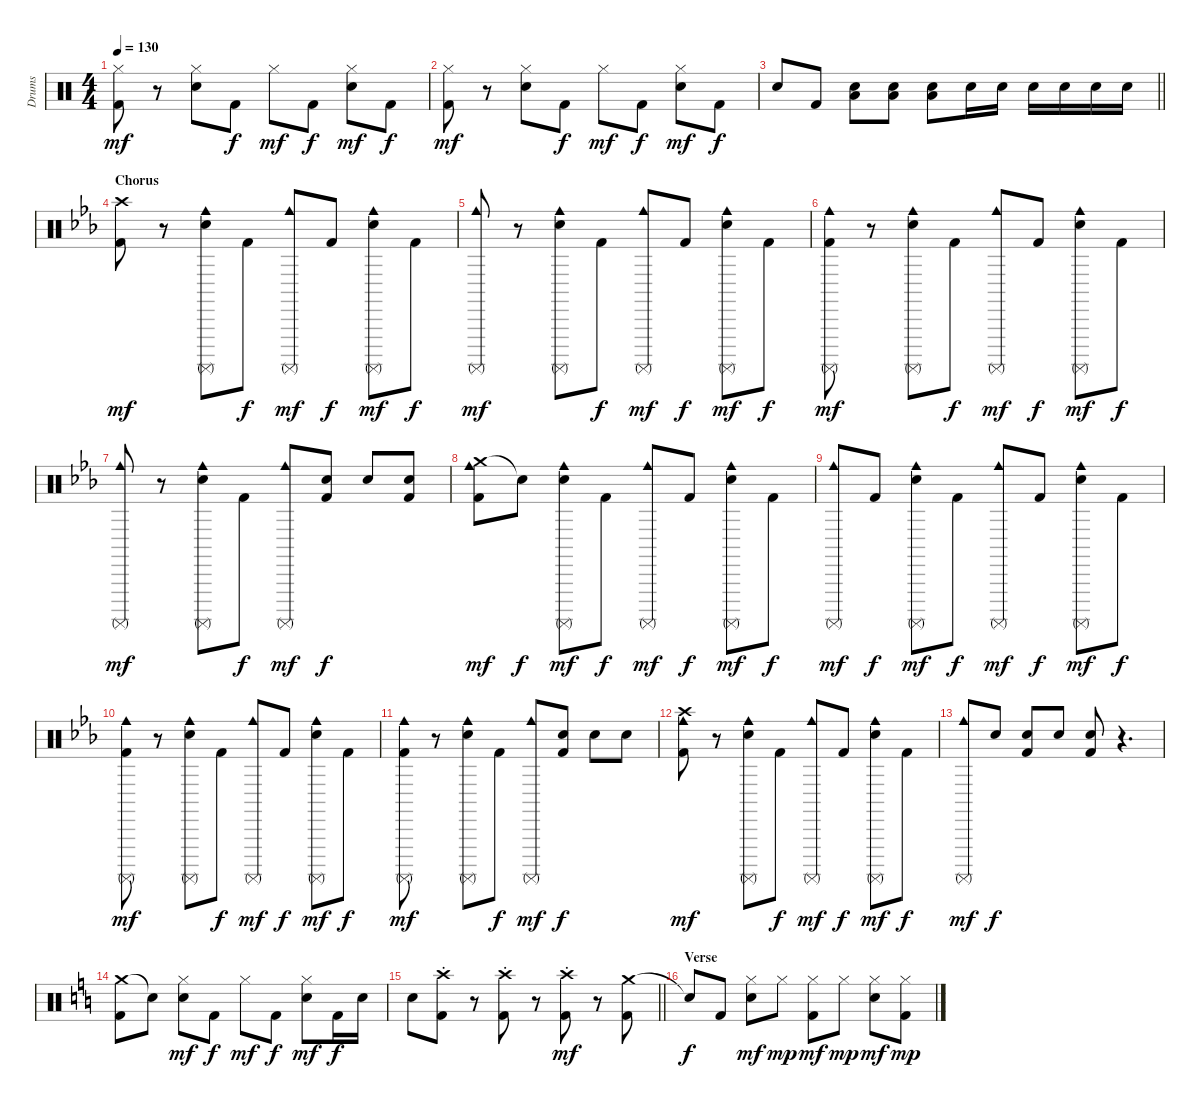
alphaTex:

\track ("Drums" "Drums") {instrument percussion}
\staff {score}
\articulation defaults
\ts (4 4)
\tempo 130
\clef neutral
\ks c
("Hi-Hat (closed)" "Kick (hit) 2").8{dy mf} r.8 ("Hi-Hat (closed)" "Electric Snare (hit)").8 "Kick (hit) 2".8{dy f} "Hi-Hat (closed)".8{dy mf} "Kick (hit) 2".8{dy f} ("Hi-Hat (closed)" "Electric Snare (hit)").8{dy mf} "Kick (hit) 2".8{dy f} |
("Hi-Hat (closed)" "Kick (hit) 2").8{dy mf} r.8 ("Hi-Hat (closed)" "Electric Snare (hit)").8 "Kick (hit) 2".8{dy f} "Hi-Hat (closed)".8{dy mf} "Kick (hit) 2".8{dy f} ("Hi-Hat (closed)" "Electric Snare (hit)").8{dy mf} "Kick (hit) 2".8{dy f} |
\barLineRight lightlight "Electric Snare (hit)".8 "Kick (hit) 2".8
("Electric Snare (hit)" "Low Tom (hit)").8 ("Electric Snare (hit)" "Low Tom (hit)").8 ("Electric Snare (hit)" "Low Tom (hit)").8 "Electric Snare (hit)".16 "Electric Snare (hit)".16 "Electric Snare (hit)".16 "Electric Snare (hit)".16 "Electric Snare (hit)".16 "Electric Snare (hit)".16 |
\section ("" "Chorus")
\ks eb
("Crash high (hit)" "Kick (hit) 2").8{dy mf} r.8 ("Surdo (mute)" "Cowbell medium (hit)" "Electric Snare (hit)").8 "Kick (hit) 2".8{dy f} ("Surdo (mute)" "Cowbell medium (hit)").8{dy mf} "Kick (hit) 2".8{dy f} ("Surdo (mute)" "Cowbell medium (hit)" "Electric Snare (hit)").8{dy mf} "Kick (hit) 2".8{dy f} |
("Surdo (mute)" "Cowbell medium (hit)").8{dy mf} r.8 ("Surdo (mute)" "Cowbell medium (hit)" "Electric Snare (hit)").8 "Kick (hit) 2".8{dy f} ("Surdo (mute)" "Cowbell medium (hit)").8{dy mf} "Kick (hit) 2".8{dy f} ("Surdo (mute)" "Cowbell medium (hit)" "Electric Snare (hit)").8{dy mf} "Kick (hit) 2".8{dy f} |
("Surdo (mute)" "Cowbell medium (hit)" "Kick (hit) 2").8{dy mf} r.8 ("Surdo (mute)" "Cowbell medium (hit)" "Electric Snare (hit)").8 "Kick (hit) 2".8{dy f} ("Surdo (mute)" "Cowbell medium (hit)").8{dy mf} "Kick (hit) 2".8{dy f} ("Surdo (mute)" "Cowbell medium (hit)" "Electric Snare (hit)").8{dy mf} "Kick (hit) 2".8{dy f} |
("Surdo (mute)" "Cowbell medium (hit)").8{dy mf} r.8 ("Surdo (mute)" "Cowbell medium (hit)" "Electric Snare (hit)").8 "Kick (hit) 2".8{dy f} ("Surdo (mute)" "Cowbell medium (hit)").8{dy mf} ("Electric Snare (hit)" "Kick (hit) 2").8{dy f} "Electric Snare (hit)".8 ("Electric Snare (hit)" "Kick (hit) 2").8 |
("Crash medium (hit)" "Cowbell medium (hit)" "Kick (hit) 2").8{dy mf} "Snare (hit)"{t}.8{dy f} ("Surdo (mute)" "Cowbell medium (hit)" "Electric Snare (hit)").8{dy mf} "Kick (hit) 2".8{dy f} ("Surdo (mute)" "Cowbell medium (hit)").8{dy mf} "Kick (hit) 2".8{dy f} ("Surdo (mute)" "Cowbell medium (hit)" "Electric Snare (hit)").8{dy mf} "Kick (hit) 2".8{dy f} |
("Surdo (mute)" "Cowbell medium (hit)").8{dy mf} "Kick (hit) 2".8{dy f} ("Surdo (mute)" "Cowbell medium (hit)" "Electric Snare (hit)").8{dy mf} "Kick (hit) 2".8{dy f} ("Surdo (mute)" "Cowbell medium (hit)").8{dy mf} "Kick (hit) 2".8{dy f} ("Surdo (mute)" "Cowbell medium (hit)" "Electric Snare (hit)").8{dy mf} "Kick (hit) 2".8{dy f} |
("Surdo (mute)" "Cowbell medium (hit)" "Kick (hit) 2").8{dy mf} r.8 ("Surdo (mute)" "Cowbell medium (hit)" "Electric Snare (hit)").8 "Kick (hit) 2".8{dy f} ("Surdo (mute)" "Cowbell medium (hit)").8{dy mf} "Kick (hit) 2".8{dy f} ("Surdo (mute)" "Cowbell medium (hit)" "Electric Snare (hit)").8{dy mf} "Kick (hit) 2".8{dy f} |
("Surdo (mute)" "Cowbell medium (hit)" "Kick (hit) 2").8{dy mf} r.8 ("Surdo (mute)" "Cowbell medium (hit)" "Electric Snare (hit)").8 "Kick (hit) 2".8{dy f} ("Surdo (mute)" "Cowbell medium (hit)").8{dy mf} ("Electric Snare (hit)" "Kick (hit) 2").8{dy f} "Electric Snare (hit)".8 "Electric Snare (hit)".8 |
("Crash high (hit)" "Cowbell medium (hit)" "Kick (hit) 2").8{dy mf} r.8 ("Surdo (mute)" "Cowbell medium (hit)" "Electric Snare (hit)").8 "Kick (hit) 2".8{dy f} ("Surdo (mute)" "Cowbell medium (hit)").8{dy mf} "Kick (hit) 2".8{dy f} ("Surdo (mute)" "Cowbell medium (hit)" "Electric Snare (hit)").8{dy mf} "Kick (hit) 2".8{dy f} |
("Surdo (mute)" "Cowbell medium (hit)").8{dy mf} "Electric Snare (hit)".8{dy f} ("Electric Snare (hit)" "Kick (hit) 2").8 "Electric Snare (hit)".8 ("Electric Snare (hit)" "Kick (hit) 2").8 r.4{d} |
\ks c
("Crash medium (hit)" "Kick (hit) 2").8 "Snare (hit)"{t}.8 ("Hi-Hat (closed)" "Electric Snare (hit)").8{dy mf} "Kick (hit) 2".8{dy f} "Hi-Hat (closed)".8{dy mf} "Kick (hit) 2".8{dy f} ("Hi-Hat (closed)" "Electric Snare (hit)").8{dy mf} "Kick (hit) 2".16{dy f} "Electric Snare (hit)".16 |
\barLineRight lightlight "Electric Snare (hit)".8
("Crash high (hit)"{st} "Kick (hit) 2").8 r.8 ("Crash high (hit)"{st} "Kick (hit) 2").8 r.8 ("Crash high (hit)"{st} "Kick (hit) 2").8{dy mf} r.8 ("Crash medium (hit)" "Kick (hit) 2").8 |
\section ("" "Verse")
"Snare (hit)"{t}.8{dy f} "Kick (hit) 2".8 ("Hi-Hat (closed)" "Electric Snare (hit)").8{dy mf} "Hi-Hat (closed)".8{dy mp} ("Hi-Hat (closed)" "Kick (hit) 2").8{dy mf} "Hi-Hat (closed)".8{dy mp} ("Hi-Hat (closed)" "Electric Snare (hit)").8{dy mf} ("Hi-Hat (closed)" "Kick (hit) 2").8{dy mp}
